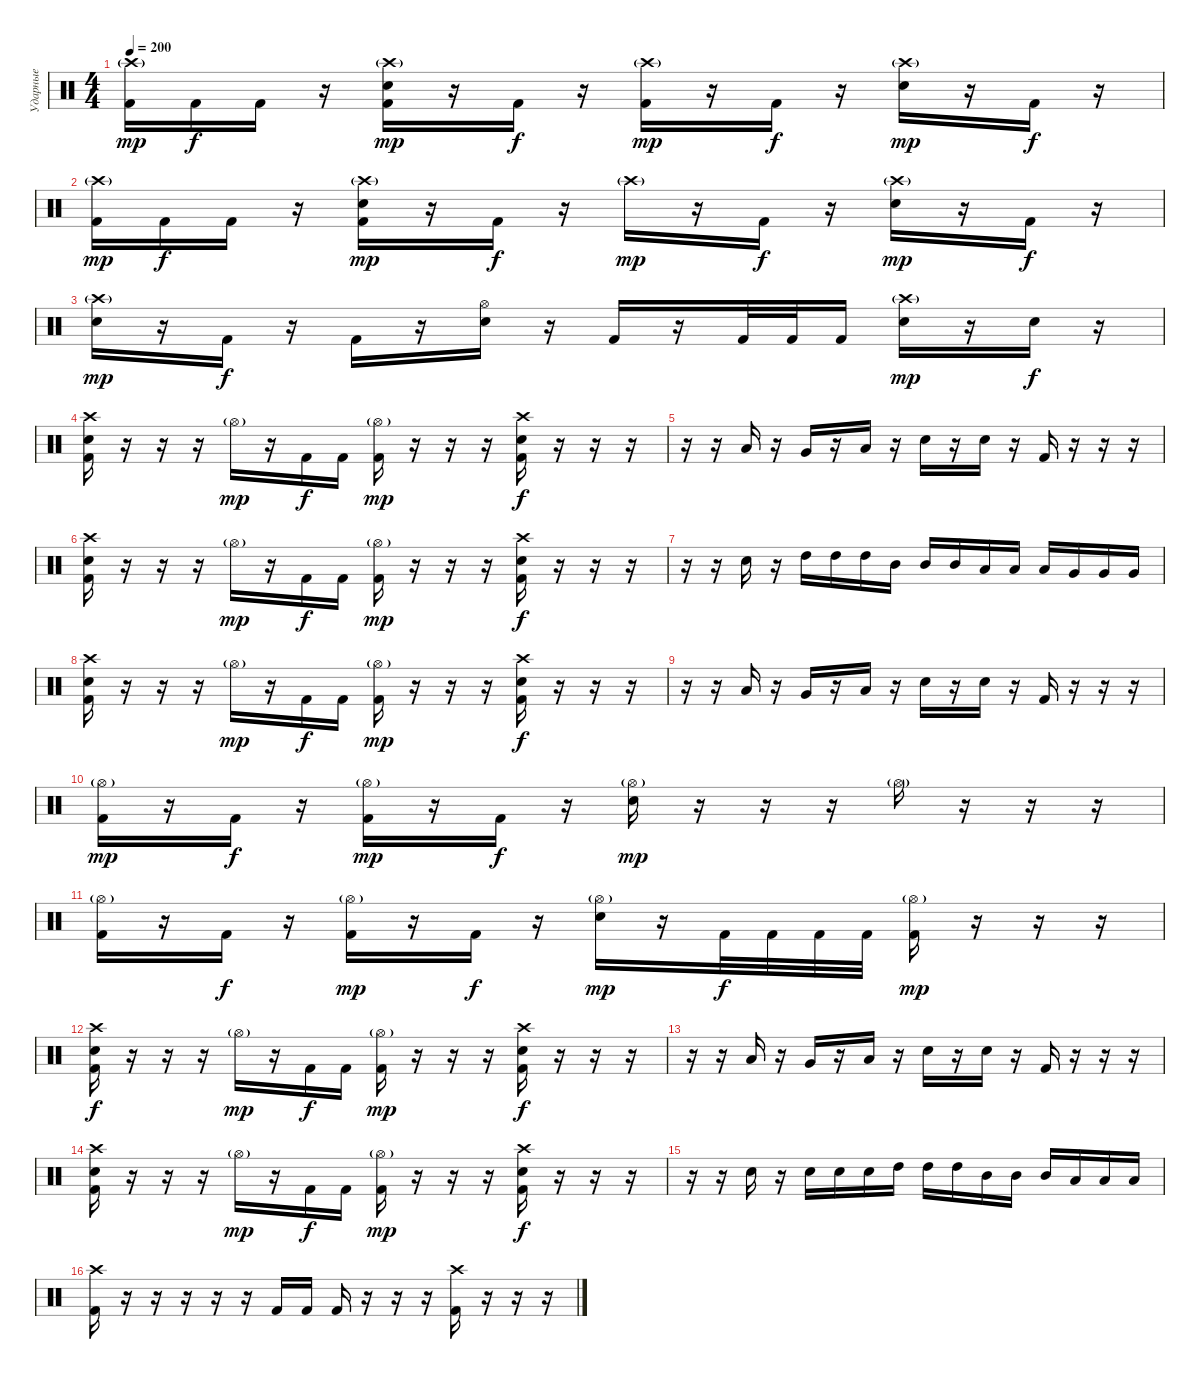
\track ("Ударные" "Ударные") {instrument percussion bank 101}
\staff {score}
\articulation defaults
\ts (4 4)
\tempo 200
\clef neutral
\ks c
("Crash high (hit)"{g} "Kick (hit) 2").16{dy mp} "Kick (hit) 2".16{dy f} "Kick (hit) 2".16 r.16 ("Crash high (hit)"{g} "Electric Snare (hit)" "Kick (hit) 2").16{dy mp} r.16 "Kick (hit) 2".16{dy f} r.16 ("Crash high (hit)"{g} "Kick (hit) 2").16{dy mp} r.16 "Kick (hit) 2".16{dy f} r.16 ("Crash high (hit)"{g} "Electric Snare (hit)").16{dy mp} r.16 "Kick (hit) 2".16{dy f} r.16 |
("Crash high (hit)"{g} "Kick (hit) 2").16{dy mp} "Kick (hit) 2".16{dy f} "Kick (hit) 2".16 r.16 ("Crash high (hit)"{g} "Electric Snare (hit)" "Kick (hit) 2").16{dy mp} r.16 "Kick (hit) 2".16{dy f} r.16 "Crash high (hit)"{g}.16{dy mp} r.16 "Kick (hit) 2".16{dy f} r.16 ("Crash high (hit)"{g} "Electric Snare (hit)").16{dy mp} r.16 "Kick (hit) 2".16{dy f} r.16 |
("Crash high (hit)"{g} "Electric Snare (hit)").16{dy mp} r.16 "Kick (hit) 2".16{dy f} r.16 "Kick (hit) 2".16 r.16 ("Hi-Hat (open)" "Electric Snare (hit)").16 r.16 "Kick (hit) 2".16 r.16 "Kick (hit) 2".32 "Kick (hit) 2".32 "Kick (hit) 2".16 ("Crash high (hit)"{g} "Electric Snare (hit)").16{dy mp} r.16 "Electric Snare (hit)".16{dy f} r.16 |
("Crash high (hit)" "Electric Snare (hit)" "Kick (hit) 2").16 r.16 r.16 r.16 "Hi-Hat (open)"{g}.16{dy mp} r.16 "Kick (hit) 2".16{dy f} "Kick (hit) 2".16 ("Hi-Hat (open)"{g} "Kick (hit) 2").16{dy mp} r.16 r.16 r.16 ("Crash high (hit)" "Electric Snare (hit)" "Kick (hit) 2").16{dy f} r.16 r.16 r.16 |
r.16 r.16 "Low Tom (hit)".16 r.16 "Very Low Tom (hit)".16 r.16 "Low Floor Tom (hit)".16 r.16 "Electric Snare (hit)".16 r.16 "Electric Snare (hit)".16 r.16 "Kick (hit) 2".16 r.16 r.16 r.16 |
("Crash high (hit)" "Electric Snare (hit)" "Kick (hit) 2").16 r.16 r.16 r.16 "Hi-Hat (open)"{g}.16{dy mp} r.16 "Kick (hit) 2".16{dy f} "Kick (hit) 2".16 ("Hi-Hat (open)"{g} "Kick (hit) 2").16{dy mp} r.16 r.16 r.16 ("Crash high (hit)" "Electric Snare (hit)" "Kick (hit) 2").16{dy f} r.16 r.16 r.16 |
r.16 r.16 "Electric Snare (hit)".16 r.16 "High Tom (hit)".16 "High Tom (hit)".16 "High Tom (hit)".16 "Mid Tom (hit)".16 "Mid Tom (hit)".16 "Mid Tom (hit)".16 "Low Tom (hit)".16 "Low Tom (hit)".16 "Low Tom (hit)".16 "Very Low Tom (hit)".16 "Very Low Tom (hit)".16 "Very Low Tom (hit)".16 |
("Crash high (hit)" "Electric Snare (hit)" "Kick (hit) 2").16 r.16 r.16 r.16 "Hi-Hat (open)"{g}.16{dy mp} r.16 "Kick (hit) 2".16{dy f} "Kick (hit) 2".16 ("Hi-Hat (open)"{g} "Kick (hit) 2").16{dy mp} r.16 r.16 r.16 ("Crash high (hit)" "Electric Snare (hit)" "Kick (hit) 2").16{dy f} r.16 r.16 r.16 |
r.16 r.16 "Low Tom (hit)".16 r.16 "Very Low Tom (hit)".16 r.16 "Low Floor Tom (hit)".16 r.16 "Electric Snare (hit)".16 r.16 "Electric Snare (hit)".16 r.16 "Kick (hit) 2".16 r.16 r.16 r.16 |
("Hi-Hat (open)"{g} "Kick (hit) 2").16{dy mp} r.16 "Kick (hit) 2".16{dy f} r.16 ("Hi-Hat (open)"{g} "Kick (hit) 2").16{dy mp} r.16 "Kick (hit) 2".16{dy f} r.16 ("Hi-Hat (open)"{g} "Electric Snare (hit)").16{dy mp} r.16 r.16 r.16 "Hi-Hat (open)"{g}.16 r.16 r.16 r.16 |
("Hi-Hat (open)"{g} "Kick (hit) 2").16 r.16 "Kick (hit) 2".16{dy f} r.16 ("Hi-Hat (open)"{g} "Kick (hit) 2").16{dy mp} r.16 "Kick (hit) 2".16{dy f} r.16 ("Hi-Hat (open)"{g} "Electric Snare (hit)").16{dy mp} r.16 "Kick (hit) 2".32{dy f} "Kick (hit) 2".32 "Kick (hit) 2".32 "Kick (hit) 2".32 ("Hi-Hat (open)"{g} "Kick (hit) 2").16{dy mp} r.16 r.16 r.16 |
("Crash high (hit)" "Electric Snare (hit)" "Kick (hit) 2").16{dy f} r.16 r.16 r.16 "Hi-Hat (open)"{g}.16{dy mp} r.16 "Kick (hit) 2".16{dy f} "Kick (hit) 2".16 ("Hi-Hat (open)"{g} "Kick (hit) 2").16{dy mp} r.16 r.16 r.16 ("Crash high (hit)" "Electric Snare (hit)" "Kick (hit) 2").16{dy f} r.16 r.16 r.16 |
r.16 r.16 "Low Tom (hit)".16 r.16 "Very Low Tom (hit)".16 r.16 "Low Floor Tom (hit)".16 r.16 "Electric Snare (hit)".16 r.16 "Electric Snare (hit)".16 r.16 "Kick (hit) 2".16 r.16 r.16 r.16 |
("Crash high (hit)" "Electric Snare (hit)" "Kick (hit) 2").16 r.16 r.16 r.16 "Hi-Hat (open)"{g}.16{dy mp} r.16 "Kick (hit) 2".16{dy f} "Kick (hit) 2".16 ("Hi-Hat (open)"{g} "Kick (hit) 2").16{dy mp} r.16 r.16 r.16 ("Crash high (hit)" "Electric Snare (hit)" "Kick (hit) 2").16{dy f} r.16 r.16 r.16 |
r.16 r.16 "Electric Snare (hit)".16 r.16 "Electric Snare (hit)".16 "Electric Snare (hit)".16 "Electric Snare (hit)".16 "High Tom (hit)".16 "High Tom (hit)".16 "High Tom (hit)".16 "Mid Tom (hit)".16 "Mid Tom (hit)".16 "Mid Tom (hit)".16 "Low Tom (hit)".16 "Low Tom (hit)".16 "Low Tom (hit)".16 |
("Crash high (hit)" "Kick (hit) 2").16 r.16 r.16 r.16 r.16 r.16 "Kick (hit) 2".16 "Kick (hit) 2".16 "Kick (hit) 2".16 r.16 r.16 r.16 ("Crash high (hit)" "Kick (hit) 2").16 r.16 r.16 r.16
